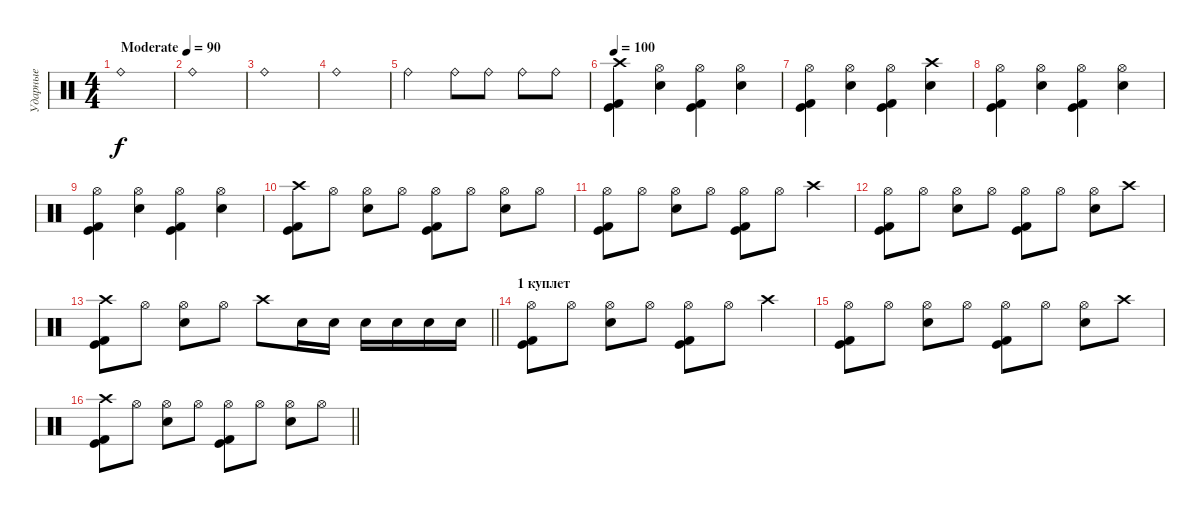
\track ("Ударные" "Ударные") {instrument percussion}
\staff {score}
\articulation defaults
\ts (4 4)
\tempo (90 "Moderate")
\clef neutral
\ks c "Ride (bell)".1{dy f}
|
"Ride (bell)".1 |
"Ride (bell)".1 |
"Ride (bell)".1 |
"Ride (bell)".2 "Ride (bell)".8 "Ride (bell)".8 "Ride (bell)".8 "Ride (bell)".8 |
\tempo 100
("Crash high (hit)" "Kick (hit) 2" "Kick (hit)").4 ("Hi-Hat (open)" "Electric Snare (hit)").4 ("Hi-Hat (open)" "Kick (hit) 2" "Kick (hit)").4 ("Hi-Hat (open)" "Electric Snare (hit)").4 |
("Hi-Hat (open)" "Kick (hit) 2" "Kick (hit)").4 ("Hi-Hat (open)" "Electric Snare (hit)").4 ("Hi-Hat (open)" "Kick (hit) 2" "Kick (hit)").4 ("Crash high (hit)" "Electric Snare (hit)").4 |
("Hi-Hat (open)" "Kick (hit) 2" "Kick (hit)").4 ("Hi-Hat (open)" "Electric Snare (hit)").4 ("Hi-Hat (open)" "Kick (hit) 2" "Kick (hit)").4 ("Hi-Hat (open)" "Electric Snare (hit)").4 |
("Hi-Hat (open)" "Kick (hit) 2" "Kick (hit)").4 ("Hi-Hat (open)" "Electric Snare (hit)").4 ("Hi-Hat (open)" "Kick (hit) 2" "Kick (hit)").4 ("Hi-Hat (open)" "Electric Snare (hit)").4 |
("Crash high (hit)" "Kick (hit) 2" "Kick (hit)").8 "Hi-Hat (open)".8 ("Hi-Hat (open)" "Electric Snare (hit)").8 "Hi-Hat (open)".8 ("Hi-Hat (open)" "Kick (hit) 2" "Kick (hit)").8 "Hi-Hat (open)".8 ("Hi-Hat (open)" "Electric Snare (hit)").8 "Hi-Hat (open)".8 |
("Hi-Hat (open)" "Kick (hit) 2" "Kick (hit)").8 "Hi-Hat (open)".8 ("Hi-Hat (open)" "Electric Snare (hit)").8 "Hi-Hat (open)".8 ("Hi-Hat (open)" "Kick (hit) 2" "Kick (hit)").8 "Hi-Hat (open)".8 "Crash high (hit)".4 |
("Hi-Hat (open)" "Kick (hit) 2" "Kick (hit)").8 "Hi-Hat (open)".8 ("Hi-Hat (open)" "Electric Snare (hit)").8 "Hi-Hat (open)".8 ("Hi-Hat (open)" "Kick (hit) 2" "Kick (hit)").8 "Hi-Hat (open)".8 ("Hi-Hat (open)" "Electric Snare (hit)").8 "Crash high (hit)".8 |
\barLineRight lightlight
("Crash high (hit)" "Kick (hit) 2" "Kick (hit)").8 "Hi-Hat (open)".8 ("Hi-Hat (open)" "Electric Snare (hit)").8 "Hi-Hat (open)".8 "Crash high (hit)".8 "Snare (hit) 2".16 "Snare (hit) 2".16 "Snare (hit) 2".16 "Snare (hit) 2".16 "Snare (hit) 2".16 "Snare (hit) 2".16 |
\section ("" "1 куплет")
("Hi-Hat (open)" "Kick (hit) 2" "Kick (hit)").8 "Hi-Hat (open)".8 ("Hi-Hat (open)" "Electric Snare (hit)").8 "Hi-Hat (open)".8 ("Hi-Hat (open)" "Kick (hit) 2" "Kick (hit)").8 "Hi-Hat (open)".8 "Crash high (hit)".4 |
("Hi-Hat (open)" "Kick (hit) 2" "Kick (hit)").8 "Hi-Hat (open)".8 ("Hi-Hat (open)" "Electric Snare (hit)").8 "Hi-Hat (open)".8 ("Hi-Hat (open)" "Kick (hit) 2" "Kick (hit)").8 "Hi-Hat (open)".8 ("Hi-Hat (open)" "Electric Snare (hit)").8 "Crash high (hit)".8 |
\barLineRight lightlight
("Crash high (hit)" "Kick (hit) 2" "Kick (hit)").8 "Hi-Hat (open)".8 ("Hi-Hat (open)" "Electric Snare (hit)").8 "Hi-Hat (open)".8 ("Hi-Hat (open)" "Kick (hit) 2" "Kick (hit)").8 "Hi-Hat (open)".8 ("Hi-Hat (open)" "Electric Snare (hit)").8 "Hi-Hat (open)".8
